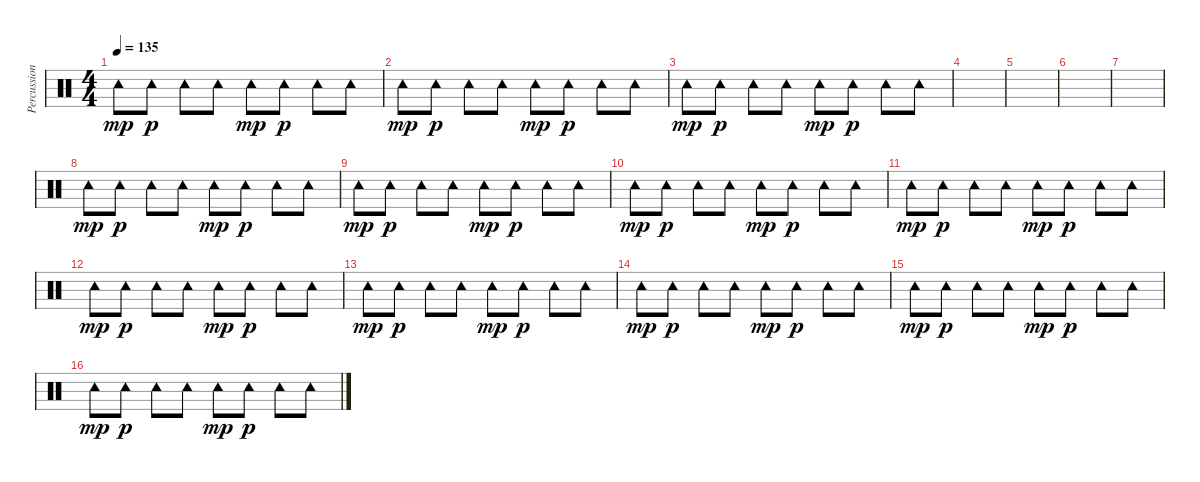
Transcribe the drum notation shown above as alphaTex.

\track ("Percussion2" "Percussion") {instrument percussion}
\staff {score}
\articulation defaults
\ts (4 4)
\tempo 135
\clef neutral
\ks c "Tambourine (hit)".8{dy mp} "Tambourine (hit)".8{dy p} "Tambourine (hit)".8 "Tambourine (hit)".8 "Tambourine (hit)".8{dy mp} "Tambourine (hit)".8{dy p} "Tambourine (hit)".8 "Tambourine (hit)".8
|
"Tambourine (hit)".8{dy mp} "Tambourine (hit)".8{dy p} "Tambourine (hit)".8 "Tambourine (hit)".8 "Tambourine (hit)".8{dy mp} "Tambourine (hit)".8{dy p} "Tambourine (hit)".8 "Tambourine (hit)".8 |
"Tambourine (hit)".8{dy mp} "Tambourine (hit)".8{dy p} "Tambourine (hit)".8 "Tambourine (hit)".8 "Tambourine (hit)".8{dy mp} "Tambourine (hit)".8{dy p} "Tambourine (hit)".8 "Tambourine (hit)".8 |
|
|
|
|
"Tambourine (hit)".8{dy mp} "Tambourine (hit)".8{dy p} "Tambourine (hit)".8 "Tambourine (hit)".8 "Tambourine (hit)".8{dy mp} "Tambourine (hit)".8{dy p} "Tambourine (hit)".8 "Tambourine (hit)".8 |
"Tambourine (hit)".8{dy mp} "Tambourine (hit)".8{dy p} "Tambourine (hit)".8 "Tambourine (hit)".8 "Tambourine (hit)".8{dy mp} "Tambourine (hit)".8{dy p} "Tambourine (hit)".8 "Tambourine (hit)".8 |
"Tambourine (hit)".8{dy mp} "Tambourine (hit)".8{dy p} "Tambourine (hit)".8 "Tambourine (hit)".8 "Tambourine (hit)".8{dy mp} "Tambourine (hit)".8{dy p} "Tambourine (hit)".8 "Tambourine (hit)".8 |
"Tambourine (hit)".8{dy mp} "Tambourine (hit)".8{dy p} "Tambourine (hit)".8 "Tambourine (hit)".8 "Tambourine (hit)".8{dy mp} "Tambourine (hit)".8{dy p} "Tambourine (hit)".8 "Tambourine (hit)".8 |
"Tambourine (hit)".8{dy mp} "Tambourine (hit)".8{dy p} "Tambourine (hit)".8 "Tambourine (hit)".8 "Tambourine (hit)".8{dy mp} "Tambourine (hit)".8{dy p} "Tambourine (hit)".8 "Tambourine (hit)".8 |
"Tambourine (hit)".8{dy mp} "Tambourine (hit)".8{dy p} "Tambourine (hit)".8 "Tambourine (hit)".8 "Tambourine (hit)".8{dy mp} "Tambourine (hit)".8{dy p} "Tambourine (hit)".8 "Tambourine (hit)".8 |
"Tambourine (hit)".8{dy mp} "Tambourine (hit)".8{dy p} "Tambourine (hit)".8 "Tambourine (hit)".8 "Tambourine (hit)".8{dy mp} "Tambourine (hit)".8{dy p} "Tambourine (hit)".8 "Tambourine (hit)".8 |
"Tambourine (hit)".8{dy mp} "Tambourine (hit)".8{dy p} "Tambourine (hit)".8 "Tambourine (hit)".8 "Tambourine (hit)".8{dy mp} "Tambourine (hit)".8{dy p} "Tambourine (hit)".8 "Tambourine (hit)".8 |
"Tambourine (hit)".8{dy mp} "Tambourine (hit)".8{dy p} "Tambourine (hit)".8 "Tambourine (hit)".8 "Tambourine (hit)".8{dy mp} "Tambourine (hit)".8{dy p} "Tambourine (hit)".8 "Tambourine (hit)".8
